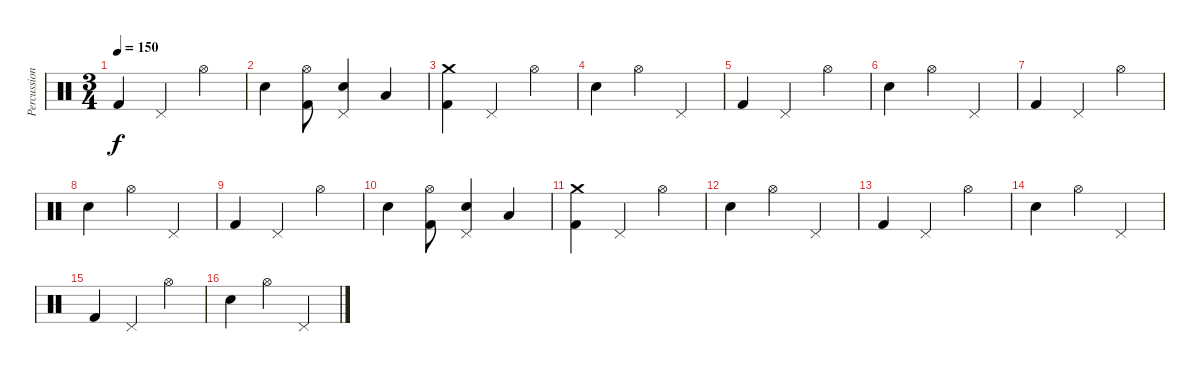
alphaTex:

\track ("Percussion" "Percussion") {instrument percussion}
\staff {score}
\articulation defaults
\ts (3 4)
\tempo 150
\clef neutral
\ks c "Kick (hit) 2".4{dy f} "Pedal Hi-Hat (hit)".4 "Hi-Hat (open)".4
|
"Snare (hit) 2".4 ("Kick (hit) 2" "Hi-Hat (open)").8 ("Snare (hit) 2" "Pedal Hi-Hat (hit)").4 "Low Tom (hit)".4 |
("Kick (hit) 2" "Crash medium (hit)").4 "Pedal Hi-Hat (hit)".4 "Hi-Hat (open)".4 |
"Snare (hit) 2".4 "Hi-Hat (open)".4 "Pedal Hi-Hat (hit)".4 |
"Kick (hit) 2".4 "Pedal Hi-Hat (hit)".4 "Hi-Hat (open)".4 |
"Snare (hit) 2".4 "Hi-Hat (open)".4 "Pedal Hi-Hat (hit)".4 |
"Kick (hit) 2".4 "Pedal Hi-Hat (hit)".4 "Hi-Hat (open)".4 |
"Snare (hit) 2".4 "Hi-Hat (open)".4 "Pedal Hi-Hat (hit)".4 |
"Kick (hit) 2".4 "Pedal Hi-Hat (hit)".4 "Hi-Hat (open)".4 |
"Snare (hit) 2".4 ("Kick (hit) 2" "Hi-Hat (open)").8 ("Snare (hit) 2" "Pedal Hi-Hat (hit)").4 "Low Tom (hit)".4 |
("Kick (hit) 2" "Crash medium (hit)").4 "Pedal Hi-Hat (hit)".4 "Hi-Hat (open)".4 |
"Snare (hit) 2".4 "Hi-Hat (open)".4 "Pedal Hi-Hat (hit)".4 |
"Kick (hit) 2".4 "Pedal Hi-Hat (hit)".4 "Hi-Hat (open)".4 |
"Snare (hit) 2".4 "Hi-Hat (open)".4 "Pedal Hi-Hat (hit)".4 |
"Kick (hit) 2".4 "Pedal Hi-Hat (hit)".4 "Hi-Hat (open)".4 |
"Snare (hit) 2".4 "Hi-Hat (open)".4 "Pedal Hi-Hat (hit)".4
